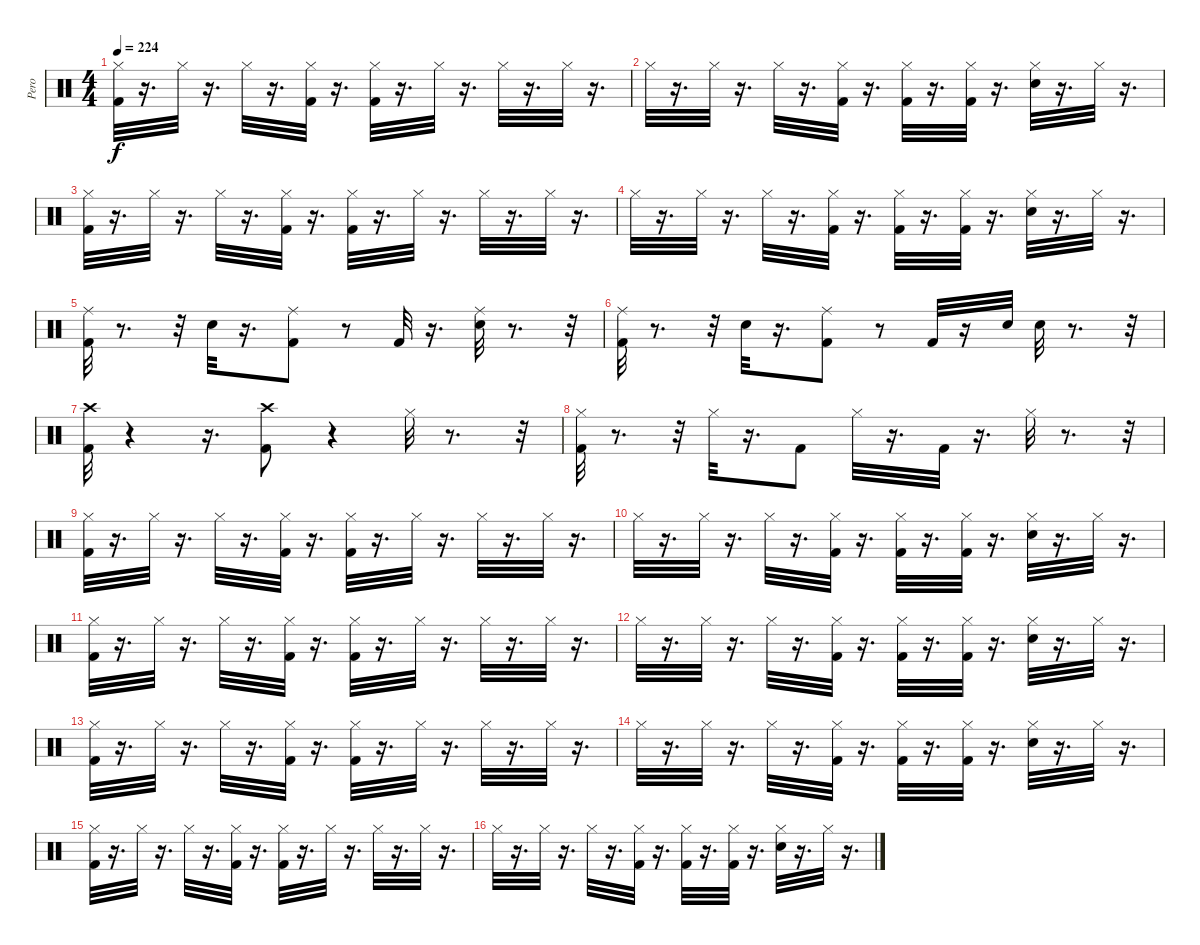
\track ("Pero" "Pero") {instrument percussion}
\staff {score}
\articulation defaults
\ts (4 4)
\tempo 224
\clef neutral
\ks c
("Hi-Hat (closed)" "Kick (hit) 2").32{dy f} r.16{d} "Hi-Hat (closed)".32 r.16{d} "Hi-Hat (closed)".32 r.16{d} ("Hi-Hat (closed)" "Kick (hit) 2").32 r.16{d} ("Hi-Hat (closed)" "Kick (hit) 2").32 r.16{d} "Hi-Hat (closed)".32 r.16{d} "Hi-Hat (closed)".32 r.16{d} "Hi-Hat (closed)".32 r.16{d} |
"Hi-Hat (closed)".32 r.16{d} "Hi-Hat (closed)".32 r.16{d} "Hi-Hat (closed)".32 r.16{d} ("Hi-Hat (closed)" "Kick (hit) 2").32 r.16{d} ("Hi-Hat (closed)" "Kick (hit) 2").32 r.16{d} ("Hi-Hat (closed)" "Kick (hit) 2").32 r.16{d} ("Hi-Hat (closed)" "Snare (hit) 2").32 r.16{d} "Hi-Hat (closed)".32 r.16{d} |
("Hi-Hat (closed)" "Kick (hit) 2").32 r.16{d} "Hi-Hat (closed)".32 r.16{d} "Hi-Hat (closed)".32 r.16{d} ("Hi-Hat (closed)" "Kick (hit) 2").32 r.16{d} ("Hi-Hat (closed)" "Kick (hit) 2").32 r.16{d} "Hi-Hat (closed)".32 r.16{d} "Hi-Hat (closed)".32 r.16{d} "Hi-Hat (closed)".32 r.16{d} |
"Hi-Hat (closed)".32 r.16{d} "Hi-Hat (closed)".32 r.16{d} "Hi-Hat (closed)".32 r.16{d} ("Hi-Hat (closed)" "Kick (hit) 2").32 r.16{d} ("Hi-Hat (closed)" "Kick (hit) 2").32 r.16{d} ("Hi-Hat (closed)" "Kick (hit) 2").32 r.16{d} ("Hi-Hat (closed)" "Snare (hit) 2").32 r.16{d} "Hi-Hat (closed)".32 r.16{d} |
("Ride (middle)" "Kick (hit) 2").32 r.8{d} r.32 "Snare (hit) 2".32 r.16{d} ("Ride (middle)" "Kick (hit) 2").8 r.8 "Kick (hit) 2".32 r.16{d} ("Ride (middle)" "Snare (hit) 2").32 r.8{d} r.32 |
("Ride (middle)" "Kick (hit) 2").32 r.8{d} r.32 "Snare (hit) 2".32 r.16{d} ("Ride (middle)" "Kick (hit) 2").8 r.8 "Kick (hit) 2".32 r.16 "Snare (hit) 2".32 "Snare (hit) 2".32 r.8{d} r.32 |
("Crash high (hit)" "Kick (hit) 2").32 r.4 r.16{d} ("Crash high (hit)" "Kick (hit) 2").8 r.4 "Hi-Hat (closed)".32 r.8{d} r.32 |
("Hi-Hat (closed)" "Kick (hit) 2").32 r.8{d} r.32 "Hi-Hat (closed)".32 r.16{d} "Kick (hit) 2".8 "Hi-Hat (closed)".32 r.16{d} "Kick (hit) 2".32 r.16{d} "Hi-Hat (closed)".32 r.8{d} r.32 |
("Hi-Hat (closed)" "Kick (hit) 2").32 r.16{d} "Hi-Hat (closed)".32 r.16{d} "Hi-Hat (closed)".32 r.16{d} ("Hi-Hat (closed)" "Kick (hit) 2").32 r.16{d} ("Hi-Hat (closed)" "Kick (hit) 2").32 r.16{d} "Hi-Hat (closed)".32 r.16{d} "Hi-Hat (closed)".32 r.16{d} "Hi-Hat (closed)".32 r.16{d} |
"Hi-Hat (closed)".32 r.16{d} "Hi-Hat (closed)".32 r.16{d} "Hi-Hat (closed)".32 r.16{d} ("Hi-Hat (closed)" "Kick (hit) 2").32 r.16{d} ("Hi-Hat (closed)" "Kick (hit) 2").32 r.16{d} ("Hi-Hat (closed)" "Kick (hit) 2").32 r.16{d} ("Hi-Hat (closed)" "Snare (hit) 2").32 r.16{d} "Hi-Hat (closed)".32 r.16{d} |
("Hi-Hat (closed)" "Kick (hit) 2").32 r.16{d} "Hi-Hat (closed)".32 r.16{d} "Hi-Hat (closed)".32 r.16{d} ("Hi-Hat (closed)" "Kick (hit) 2").32 r.16{d} ("Hi-Hat (closed)" "Kick (hit) 2").32 r.16{d} "Hi-Hat (closed)".32 r.16{d} "Hi-Hat (closed)".32 r.16{d} "Hi-Hat (closed)".32 r.16{d} |
"Hi-Hat (closed)".32 r.16{d} "Hi-Hat (closed)".32 r.16{d} "Hi-Hat (closed)".32 r.16{d} ("Hi-Hat (closed)" "Kick (hit) 2").32 r.16{d} ("Hi-Hat (closed)" "Kick (hit) 2").32 r.16{d} ("Hi-Hat (closed)" "Kick (hit) 2").32 r.16{d} ("Hi-Hat (closed)" "Snare (hit) 2").32 r.16{d} "Hi-Hat (closed)".32 r.16{d} |
("Hi-Hat (closed)" "Kick (hit) 2").32 r.16{d} "Hi-Hat (closed)".32 r.16{d} "Hi-Hat (closed)".32 r.16{d} ("Hi-Hat (closed)" "Kick (hit) 2").32 r.16{d} ("Hi-Hat (closed)" "Kick (hit) 2").32 r.16{d} "Hi-Hat (closed)".32 r.16{d} "Hi-Hat (closed)".32 r.16{d} "Hi-Hat (closed)".32 r.16{d} |
"Hi-Hat (closed)".32 r.16{d} "Hi-Hat (closed)".32 r.16{d} "Hi-Hat (closed)".32 r.16{d} ("Hi-Hat (closed)" "Kick (hit) 2").32 r.16{d} ("Hi-Hat (closed)" "Kick (hit) 2").32 r.16{d} ("Hi-Hat (closed)" "Kick (hit) 2").32 r.16{d} ("Hi-Hat (closed)" "Snare (hit) 2").32 r.16{d} "Hi-Hat (closed)".32 r.16{d} |
("Hi-Hat (closed)" "Kick (hit) 2").32 r.16{d} "Hi-Hat (closed)".32 r.16{d} "Hi-Hat (closed)".32 r.16{d} ("Hi-Hat (closed)" "Kick (hit) 2").32 r.16{d} ("Hi-Hat (closed)" "Kick (hit) 2").32 r.16{d} "Hi-Hat (closed)".32 r.16{d} "Hi-Hat (closed)".32 r.16{d} "Hi-Hat (closed)".32 r.16{d} |
"Hi-Hat (closed)".32 r.16{d} "Hi-Hat (closed)".32 r.16{d} "Hi-Hat (closed)".32 r.16{d} ("Hi-Hat (closed)" "Kick (hit) 2").32 r.16{d} ("Hi-Hat (closed)" "Kick (hit) 2").32 r.16{d} ("Hi-Hat (closed)" "Kick (hit) 2").32 r.16{d} ("Hi-Hat (closed)" "Snare (hit) 2").32 r.16{d} "Hi-Hat (closed)".32 r.16{d}
